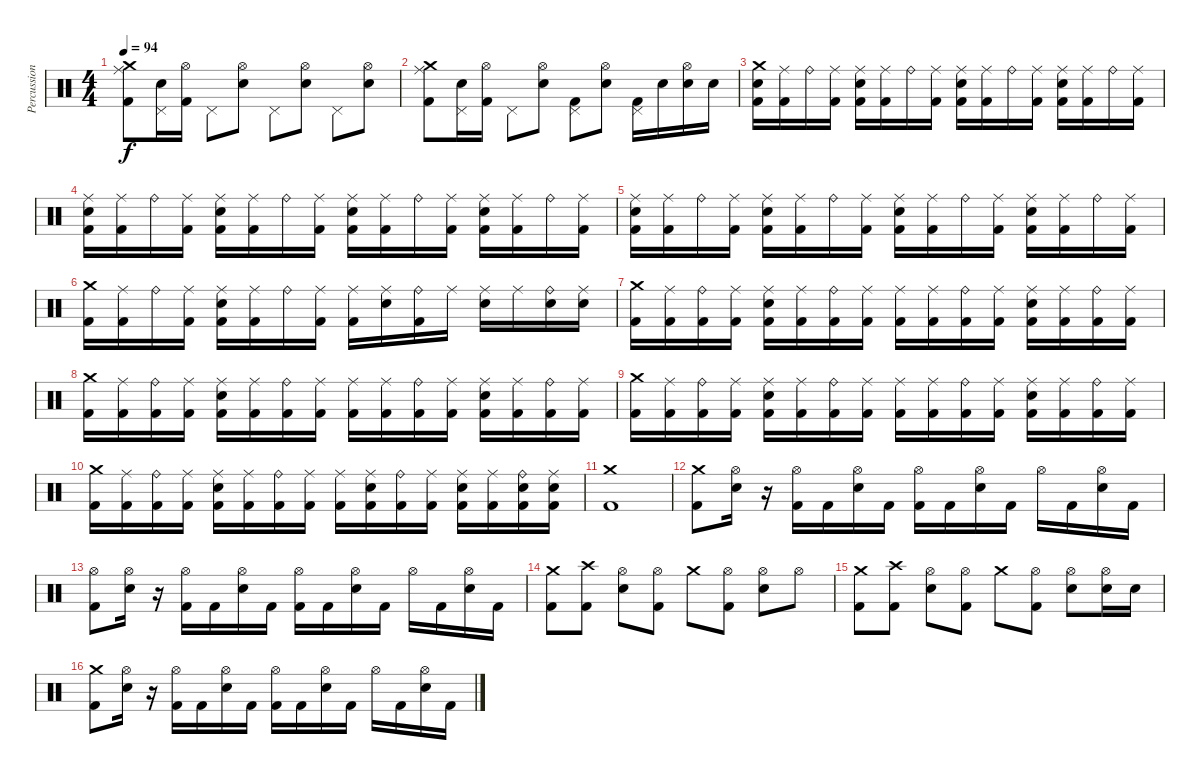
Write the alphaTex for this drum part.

\track ("Percussion" "Percussion") {instrument percussion}
\staff {score}
\articulation defaults
\ts (4 4)
\tempo 94
\clef neutral
\ks c
("Crash medium (hit)" "Ride (middle)" "Kick (hit) 2").8{dy f} ("Pedal Hi-Hat (hit)" "Electric Snare (hit)").16 ("Hi-Hat (open)" "Kick (hit) 2").16 "Pedal Hi-Hat (hit)".8 ("Hi-Hat (open)" "Electric Snare (hit)").8 "Pedal Hi-Hat (hit)".8 ("Hi-Hat (open)" "Electric Snare (hit)").8 "Pedal Hi-Hat (hit)".8 ("Hi-Hat (open)" "Electric Snare (hit)").8 |
("Crash medium (hit)" "Ride (middle)" "Kick (hit) 2").8 ("Pedal Hi-Hat (hit)" "Electric Snare (hit)").16 ("Hi-Hat (open)" "Kick (hit) 2").16 "Pedal Hi-Hat (hit)".8 ("Hi-Hat (open)" "Electric Snare (hit)").8 ("Pedal Hi-Hat (hit)" "Kick (hit) 2").8 ("Hi-Hat (open)" "Electric Snare (hit)").8 ("Pedal Hi-Hat (hit)" "Kick (hit) 2").16 "Electric Snare (hit)".16 ("Hi-Hat (open)" "Electric Snare (hit)").16 "Electric Snare (hit)".16 |
("Crash medium (hit)" "Electric Snare (hit)" "Kick (hit) 2").16 ("Ride (middle)" "Kick (hit) 2").16 "Ride (bell)".16 ("Ride (middle)" "Kick (hit) 2").16 ("Ride (middle)" "Electric Snare (hit)" "Kick (hit) 2").16 ("Ride (middle)" "Kick (hit) 2").16 "Ride (bell)".16 ("Ride (middle)" "Kick (hit) 2").16 ("Ride (middle)" "Electric Snare (hit)" "Kick (hit) 2").16 ("Ride (middle)" "Kick (hit) 2").16 "Ride (bell)".16 ("Ride (middle)" "Kick (hit) 2").16 ("Ride (middle)" "Electric Snare (hit)" "Kick (hit) 2").16 ("Ride (middle)" "Kick (hit) 2").16 "Ride (bell)".16 ("Ride (middle)" "Kick (hit) 2").16 |
("Ride (middle)" "Electric Snare (hit)" "Kick (hit) 2").16 ("Ride (middle)" "Kick (hit) 2").16 "Ride (bell)".16 ("Ride (middle)" "Kick (hit) 2").16 ("Ride (middle)" "Electric Snare (hit)" "Kick (hit) 2").16 ("Ride (middle)" "Kick (hit) 2").16 "Ride (bell)".16 ("Ride (middle)" "Kick (hit) 2").16 ("Ride (middle)" "Electric Snare (hit)" "Kick (hit) 2").16 ("Ride (middle)" "Kick (hit) 2").16 "Ride (bell)".16 ("Ride (middle)" "Kick (hit) 2").16 ("Ride (middle)" "Electric Snare (hit)" "Kick (hit) 2").16 ("Ride (middle)" "Kick (hit) 2").16 "Ride (bell)".16 ("Ride (middle)" "Kick (hit) 2").16 |
("Ride (middle)" "Electric Snare (hit)" "Kick (hit) 2").16 ("Ride (middle)" "Kick (hit) 2").16 "Ride (bell)".16 ("Ride (middle)" "Kick (hit) 2").16 ("Ride (middle)" "Electric Snare (hit)" "Kick (hit) 2").16 ("Ride (middle)" "Kick (hit) 2").16 "Ride (bell)".16 ("Ride (middle)" "Kick (hit) 2").16 ("Ride (middle)" "Electric Snare (hit)" "Kick (hit) 2").16 ("Ride (middle)" "Kick (hit) 2").16 "Ride (bell)".16 ("Ride (middle)" "Kick (hit) 2").16 ("Ride (middle)" "Electric Snare (hit)" "Kick (hit) 2").16 ("Ride (middle)" "Kick (hit) 2").16 "Ride (bell)".16 ("Ride (middle)" "Kick (hit) 2").16 |
("Crash medium (hit)" "Kick (hit) 2").16 ("Ride (middle)" "Kick (hit) 2").16 "Ride (bell)".16 ("Ride (middle)" "Kick (hit) 2").16 ("Ride (middle)" "Electric Snare (hit)" "Kick (hit) 2").16 ("Ride (middle)" "Kick (hit) 2").16 "Ride (bell)".16 ("Ride (middle)" "Kick (hit) 2").16 ("Ride (middle)" "Kick (hit) 2").16 ("Ride (middle)" "Electric Snare (hit)").16 ("Ride (bell)" "Kick (hit) 2").16 "Ride (middle)".16 ("Ride (middle)" "Electric Snare (hit)").16 "Ride (middle)".16 ("Ride (bell)" "Electric Snare (hit)").16 ("Ride (middle)" "Electric Snare (hit)").16 |
("Crash medium (hit)" "Kick (hit) 2").16 ("Ride (middle)" "Kick (hit) 2").16 ("Ride (bell)" "Kick (hit) 2").16 ("Ride (middle)" "Kick (hit) 2").16 ("Ride (middle)" "Electric Snare (hit)" "Kick (hit) 2").16 ("Ride (middle)" "Kick (hit) 2").16 ("Ride (bell)" "Kick (hit) 2").16 ("Ride (middle)" "Kick (hit) 2").16 ("Ride (middle)" "Kick (hit) 2").16 ("Ride (middle)" "Kick (hit) 2").16 ("Ride (bell)" "Kick (hit) 2").16 ("Ride (middle)" "Kick (hit) 2").16 ("Ride (middle)" "Electric Snare (hit)" "Kick (hit) 2").16 ("Ride (middle)" "Kick (hit) 2").16 ("Ride (bell)" "Kick (hit) 2").16 ("Ride (middle)" "Kick (hit) 2").16 |
("Crash medium (hit)" "Kick (hit) 2").16 ("Ride (middle)" "Kick (hit) 2").16 ("Ride (bell)" "Kick (hit) 2").16 ("Ride (middle)" "Kick (hit) 2").16 ("Ride (middle)" "Electric Snare (hit)" "Kick (hit) 2").16 ("Ride (middle)" "Kick (hit) 2").16 ("Ride (bell)" "Kick (hit) 2").16 ("Ride (middle)" "Kick (hit) 2").16 ("Ride (middle)" "Kick (hit) 2").16 ("Ride (middle)" "Kick (hit) 2").16 ("Ride (bell)" "Kick (hit) 2").16 ("Ride (middle)" "Kick (hit) 2").16 ("Ride (middle)" "Electric Snare (hit)" "Kick (hit) 2").16 ("Ride (middle)" "Kick (hit) 2").16 ("Ride (bell)" "Kick (hit) 2").16 ("Ride (middle)" "Kick (hit) 2").16 |
("Crash medium (hit)" "Kick (hit) 2").16 ("Ride (middle)" "Kick (hit) 2").16 ("Ride (bell)" "Kick (hit) 2").16 ("Ride (middle)" "Kick (hit) 2").16 ("Ride (middle)" "Electric Snare (hit)" "Kick (hit) 2").16 ("Ride (middle)" "Kick (hit) 2").16 ("Ride (bell)" "Kick (hit) 2").16 ("Ride (middle)" "Kick (hit) 2").16 ("Ride (middle)" "Kick (hit) 2").16 ("Ride (middle)" "Kick (hit) 2").16 ("Ride (bell)" "Kick (hit) 2").16 ("Ride (middle)" "Kick (hit) 2").16 ("Ride (middle)" "Electric Snare (hit)" "Kick (hit) 2").16 ("Ride (middle)" "Kick (hit) 2").16 ("Ride (bell)" "Kick (hit) 2").16 ("Ride (middle)" "Kick (hit) 2").16 |
("Crash medium (hit)" "Kick (hit) 2").16 ("Ride (middle)" "Kick (hit) 2").16 ("Ride (bell)" "Kick (hit) 2").16 ("Ride (middle)" "Kick (hit) 2").16 ("Ride (middle)" "Electric Snare (hit)" "Kick (hit) 2").16 ("Ride (middle)" "Kick (hit) 2").16 ("Ride (bell)" "Kick (hit) 2").16 ("Ride (middle)" "Kick (hit) 2").16 ("Ride (middle)" "Kick (hit) 2").16 ("Ride (middle)" "Electric Snare (hit)" "Kick (hit) 2").16 ("Ride (bell)" "Kick (hit) 2").16 ("Ride (middle)" "Kick (hit) 2").16 ("Ride (middle)" "Electric Snare (hit)" "Kick (hit) 2").16 ("Ride (middle)" "Kick (hit) 2").16 ("Ride (bell)" "Electric Snare (hit)" "Kick (hit) 2").16 ("Ride (middle)" "Electric Snare (hit)" "Kick (hit) 2").16 |
("Crash medium (hit)" "Kick (hit) 2").1 |
("Crash medium (hit)" "Kick (hit) 2").8{volume 16} ("Hi-Hat (open)" "Electric Snare (hit)").16 r.16 ("Hi-Hat (open)" "Kick (hit) 2").16 "Kick (hit) 2".16 ("Hi-Hat (open)" "Electric Snare (hit)").16 "Kick (hit) 2".16 ("Hi-Hat (open)" "Kick (hit) 2").16 "Kick (hit) 2".16 ("Hi-Hat (open)" "Electric Snare (hit)").16 "Kick (hit) 2".16 "Hi-Hat (open)".16 "Kick (hit) 2".16 ("Hi-Hat (open)" "Electric Snare (hit)").16 "Kick (hit) 2".16 |
("Hi-Hat (open)" "Kick (hit) 2").8 ("Hi-Hat (open)" "Electric Snare (hit)").16 r.16 ("Hi-Hat (open)" "Kick (hit) 2").16 "Kick (hit) 2".16 ("Hi-Hat (open)" "Electric Snare (hit)").16 "Kick (hit) 2".16 ("Hi-Hat (open)" "Kick (hit) 2").16 "Kick (hit) 2".16 ("Hi-Hat (open)" "Electric Snare (hit)").16 "Kick (hit) 2".16 "Hi-Hat (open)".16 "Kick (hit) 2".16 ("Hi-Hat (open)" "Electric Snare (hit)").16 "Kick (hit) 2".16 |
("Crash medium (hit)" "Kick (hit) 2").8 ("Crash high (hit)" "Kick (hit) 2").8 ("Hi-Hat (open)" "Electric Snare (hit)").8 ("Hi-Hat (open)" "Kick (hit) 2").8 "Crash medium (hit)".8 ("Hi-Hat (open)" "Kick (hit) 2").8 ("Hi-Hat (open)" "Electric Snare (hit)").8 "Hi-Hat (open)".8 |
("Crash medium (hit)" "Kick (hit) 2").8 ("Crash high (hit)" "Kick (hit) 2").8 ("Hi-Hat (open)" "Electric Snare (hit)").8 ("Hi-Hat (open)" "Kick (hit) 2").8 "Crash medium (hit)".8 ("Hi-Hat (open)" "Kick (hit) 2").8 ("Hi-Hat (open)" "Electric Snare (hit)").8 ("Hi-Hat (open)" "Electric Snare (hit)").16 "Electric Snare (hit)".16 |
("Crash medium (hit)" "Kick (hit) 2").8{volume 16} ("Hi-Hat (open)" "Electric Snare (hit)").16 r.16 ("Hi-Hat (open)" "Kick (hit) 2").16 "Kick (hit) 2".16 ("Hi-Hat (open)" "Electric Snare (hit)").16 "Kick (hit) 2".16 ("Hi-Hat (open)" "Kick (hit) 2").16 "Kick (hit) 2".16 ("Hi-Hat (open)" "Electric Snare (hit)").16 "Kick (hit) 2".16 "Hi-Hat (open)".16 "Kick (hit) 2".16 ("Hi-Hat (open)" "Electric Snare (hit)").16 "Kick (hit) 2".16
